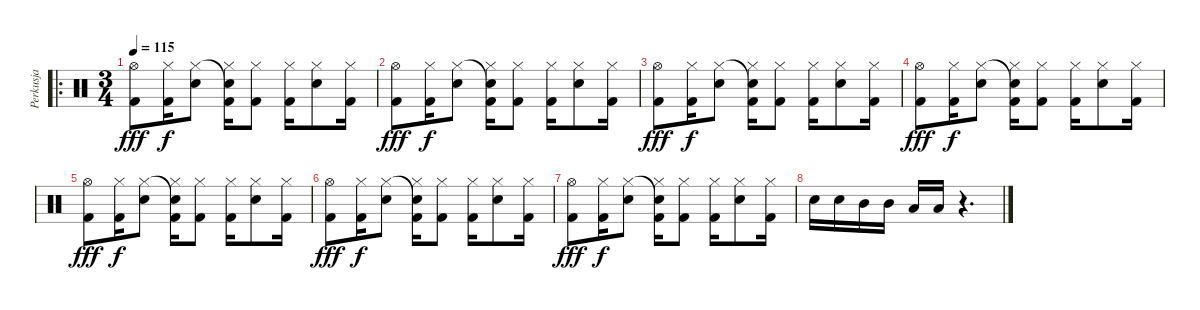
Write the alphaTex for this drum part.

\track ("Perkusja" "Perkusja") {instrument percussion}
\staff {score}
\articulation defaults
\ro
\ts (3 4)
\tempo 115
\clef neutral
\ks c
("Hi-Hat (open)" "Kick (hit) 2").8{dy fff} ("Hi-Hat (closed)" "Kick (hit) 2").16{dy f} ("Hi-Hat (closed)" "Snare (hit) 2").8 ("Snare (hit)"{t} "Hi-Hat (closed)" "Kick (hit) 2").16 ("Hi-Hat (closed)" "Kick (hit) 2").8 ("Hi-Hat (closed)" "Kick (hit) 2").16 ("Hi-Hat (closed)" "Snare (hit) 2").8 ("Hi-Hat (closed)" "Kick (hit) 2").16 |
("Hi-Hat (open)" "Kick (hit) 2").8{dy fff} ("Hi-Hat (closed)" "Kick (hit) 2").16{dy f} ("Hi-Hat (closed)" "Snare (hit) 2").8 ("Snare (hit)"{t} "Hi-Hat (closed)" "Kick (hit) 2").16 ("Hi-Hat (closed)" "Kick (hit) 2").8 ("Hi-Hat (closed)" "Kick (hit) 2").16 ("Hi-Hat (closed)" "Snare (hit) 2").8 ("Hi-Hat (closed)" "Kick (hit) 2").16 |
("Hi-Hat (open)" "Kick (hit) 2").8{dy fff} ("Hi-Hat (closed)" "Kick (hit) 2").16{dy f} ("Hi-Hat (closed)" "Snare (hit) 2").8 ("Snare (hit)"{t} "Hi-Hat (closed)" "Kick (hit) 2").16 ("Hi-Hat (closed)" "Kick (hit) 2").8 ("Hi-Hat (closed)" "Kick (hit) 2").16 ("Hi-Hat (closed)" "Snare (hit) 2").8 ("Hi-Hat (closed)" "Kick (hit) 2").16 |
("Hi-Hat (open)" "Kick (hit) 2").8{dy fff} ("Hi-Hat (closed)" "Kick (hit) 2").16{dy f} ("Hi-Hat (closed)" "Snare (hit) 2").8 ("Snare (hit)"{t} "Hi-Hat (closed)" "Kick (hit) 2").16 ("Hi-Hat (closed)" "Kick (hit) 2").8 ("Hi-Hat (closed)" "Kick (hit) 2").16 ("Hi-Hat (closed)" "Snare (hit) 2").8 ("Hi-Hat (closed)" "Kick (hit) 2").16 |
("Hi-Hat (open)" "Kick (hit) 2").8{dy fff} ("Hi-Hat (closed)" "Kick (hit) 2").16{dy f} ("Hi-Hat (closed)" "Snare (hit) 2").8 ("Snare (hit)"{t} "Hi-Hat (closed)" "Kick (hit) 2").16 ("Hi-Hat (closed)" "Kick (hit) 2").8 ("Hi-Hat (closed)" "Kick (hit) 2").16 ("Hi-Hat (closed)" "Snare (hit) 2").8 ("Hi-Hat (closed)" "Kick (hit) 2").16 |
("Hi-Hat (open)" "Kick (hit) 2").8{dy fff} ("Hi-Hat (closed)" "Kick (hit) 2").16{dy f} ("Hi-Hat (closed)" "Snare (hit) 2").8 ("Snare (hit)"{t} "Hi-Hat (closed)" "Kick (hit) 2").16 ("Hi-Hat (closed)" "Kick (hit) 2").8 ("Hi-Hat (closed)" "Kick (hit) 2").16 ("Hi-Hat (closed)" "Snare (hit) 2").8 ("Hi-Hat (closed)" "Kick (hit) 2").16 |
("Hi-Hat (open)" "Kick (hit) 2").8{dy fff} ("Hi-Hat (closed)" "Kick (hit) 2").16{dy f} ("Hi-Hat (closed)" "Snare (hit) 2").8 ("Snare (hit)"{t} "Hi-Hat (closed)" "Kick (hit) 2").16 ("Hi-Hat (closed)" "Kick (hit) 2").8 ("Hi-Hat (closed)" "Kick (hit) 2").16 ("Hi-Hat (closed)" "Snare (hit) 2").8 ("Hi-Hat (closed)" "Kick (hit) 2").16 |
"Snare (hit) 2".16 "Snare (hit) 2".16 "Mid Tom (hit)".16 "Mid Tom (hit)".16 "Low Tom (hit)".16 "Low Tom (hit)".16 r.4{d}
